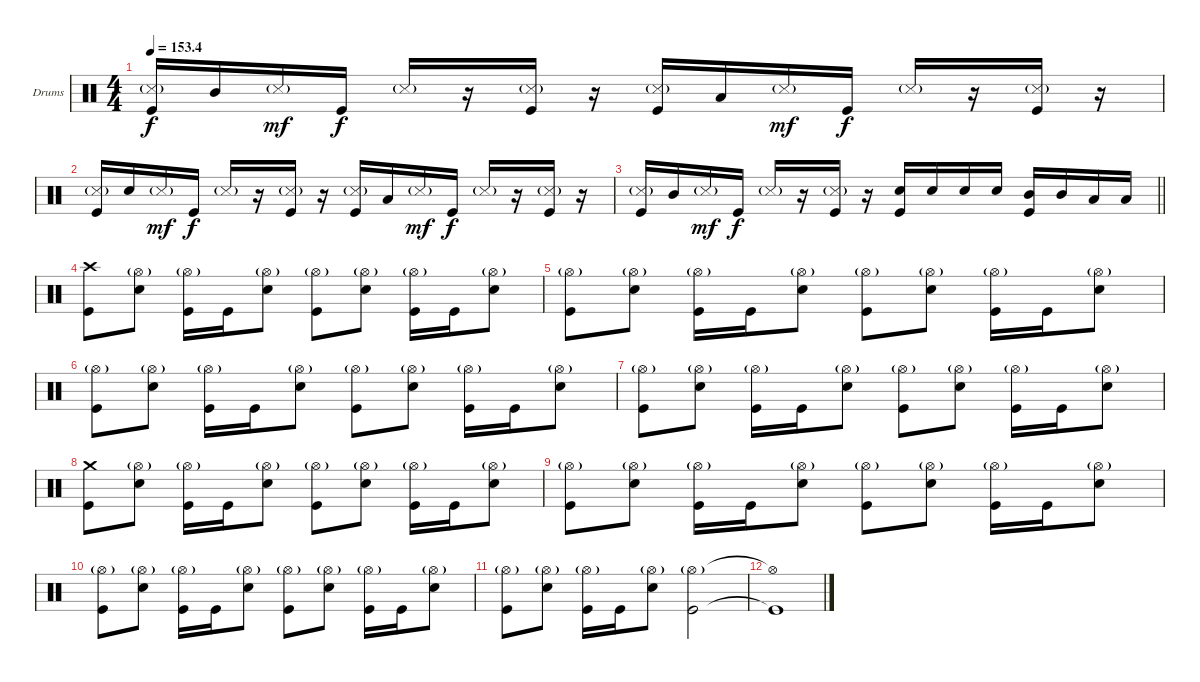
\bracketExtendMode groupsimilarinstruments
\firstSystemTrackNameOrientation horizontal
\otherSystemsTrackNameOrientation horizontal
\track ("Drumkit" "Drums") {instrument percussion}
\staff {score}
\articulation defaults
\ts (4 4)
\tempo
153.4
\accidentals auto
\clef neutral
\ottava regular
\simile none
\ks c
("Snare (side stick) 3"{g} "Kick (hit)").16{dy f} "Mid Tom (hit)".16 "Snare (side stick) 3"{g}.16{dy mf} "Kick (hit)".16{dy f} "Snare (side stick) 3"{g}.16 r.16 ("Snare (side stick) 3"{g} "Kick (hit)").16 r.16 ("Snare (side stick) 3"{g} "Kick (hit)").16 "Low Tom (hit)".16 "Snare (side stick) 3"{g}.16{dy mf} "Kick (hit)".16{dy f} "Snare (side stick) 3"{g}.16 r.16 ("Snare (side stick) 3"{g} "Kick (hit)").16 r.16 |
("Snare (side stick) 3"{g} "Kick (hit)").16 "Snare (hit) 2".16 "Snare (side stick) 3"{g}.16{dy mf} "Kick (hit)".16{dy f} "Snare (side stick) 3"{g}.16 r.16 ("Snare (side stick) 3"{g} "Kick (hit)").16 r.16 ("Snare (side stick) 3"{g} "Kick (hit)").16 "Low Tom (hit)".16 "Snare (side stick) 3"{g}.16{dy mf} "Kick (hit)".16{dy f} "Snare (side stick) 3"{g}.16 r.16 ("Snare (side stick) 3"{g} "Kick (hit)").16 r.16 |
\barLineRight lightlight
("Snare (side stick) 3"{g} "Kick (hit)").16 "Mid Tom (hit)".16 "Snare (side stick) 3"{g}.16{dy mf} "Kick (hit)".16{dy f} "Snare (side stick) 3"{g}.16 r.16 ("Snare (side stick) 3"{g} "Kick (hit)").16 r.16 ("Snare (hit) 2" "Kick (hit)").16 "Snare (hit) 2".16 "Snare (hit) 2".16 "Snare (hit) 2".16 ("Mid Tom (hit)" "Kick (hit)").16 "Mid Tom (hit)".16 "Low Tom (hit)".16 "Low Tom (hit)".16 |
("Crash high (hit)" "Kick (hit)").8 ("Hi-Hat (open)"{g} "Snare (hit) 2").8 ("Hi-Hat (open)"{g} "Kick (hit)").16 "Kick (hit)".16 ("Hi-Hat (open)"{g} "Snare (hit) 2").8 ("Hi-Hat (open)"{g} "Kick (hit)").8 ("Hi-Hat (open)"{g} "Snare (hit) 2").8 ("Hi-Hat (open)"{g} "Kick (hit)").16 "Kick (hit)".16 ("Hi-Hat (open)"{g} "Snare (hit) 2").8 |
("Hi-Hat (open)"{g} "Kick (hit)").8 ("Hi-Hat (open)"{g} "Snare (hit) 2").8 ("Hi-Hat (open)"{g} "Kick (hit)").16 "Kick (hit)".16 ("Hi-Hat (open)"{g} "Snare (hit) 2").8 ("Hi-Hat (open)"{g} "Kick (hit)").8 ("Hi-Hat (open)"{g} "Snare (hit) 2").8 ("Hi-Hat (open)"{g} "Kick (hit)").16 "Kick (hit)".16 ("Hi-Hat (open)"{g} "Snare (hit) 2").8 |
("Hi-Hat (open)"{g} "Kick (hit)").8 ("Hi-Hat (open)"{g} "Snare (hit) 2").8 ("Hi-Hat (open)"{g} "Kick (hit)").16 "Kick (hit)".16 ("Hi-Hat (open)"{g} "Snare (hit) 2").8 ("Hi-Hat (open)"{g} "Kick (hit)").8 ("Hi-Hat (open)"{g} "Snare (hit) 2").8 ("Hi-Hat (open)"{g} "Kick (hit)").16 "Kick (hit)".16 ("Hi-Hat (open)"{g} "Snare (hit) 2").8 |
("Hi-Hat (open)"{g} "Kick (hit)").8 ("Hi-Hat (open)"{g} "Snare (hit) 2").8 ("Hi-Hat (open)"{g} "Kick (hit)").16 "Kick (hit)".16 ("Hi-Hat (open)"{g} "Snare (hit) 2").8 ("Hi-Hat (open)"{g} "Kick (hit)").8 ("Hi-Hat (open)"{g} "Snare (hit) 2").8 ("Hi-Hat (open)"{g} "Kick (hit)").16 "Kick (hit)".16 ("Hi-Hat (open)"{g} "Snare (hit) 2").8 |
("Crash medium (hit)" "Kick (hit)").8 ("Hi-Hat (open)"{g} "Snare (hit) 2").8 ("Hi-Hat (open)"{g} "Kick (hit)").16 "Kick (hit)".16 ("Hi-Hat (open)"{g} "Snare (hit) 2").8 ("Hi-Hat (open)"{g} "Kick (hit)").8 ("Hi-Hat (open)"{g} "Snare (hit) 2").8 ("Hi-Hat (open)"{g} "Kick (hit)").16 "Kick (hit)".16 ("Hi-Hat (open)"{g} "Snare (hit) 2").8 |
("Hi-Hat (open)"{g} "Kick (hit)").8 ("Hi-Hat (open)"{g} "Snare (hit) 2").8 ("Hi-Hat (open)"{g} "Kick (hit)").16 "Kick (hit)".16 ("Hi-Hat (open)"{g} "Snare (hit) 2").8 ("Hi-Hat (open)"{g} "Kick (hit)").8 ("Hi-Hat (open)"{g} "Snare (hit) 2").8 ("Hi-Hat (open)"{g} "Kick (hit)").16 "Kick (hit)".16 ("Hi-Hat (open)"{g} "Snare (hit) 2").8 |
("Hi-Hat (open)"{g} "Kick (hit)").8 ("Hi-Hat (open)"{g} "Snare (hit) 2").8 ("Hi-Hat (open)"{g} "Kick (hit)").16 "Kick (hit)".16 ("Hi-Hat (open)"{g} "Snare (hit) 2").8 ("Hi-Hat (open)"{g} "Kick (hit)").8 ("Hi-Hat (open)"{g} "Snare (hit) 2").8 ("Hi-Hat (open)"{g} "Kick (hit)").16 "Kick (hit)".16 ("Hi-Hat (open)"{g} "Snare (hit) 2").8 |
("Hi-Hat (open)"{g} "Kick (hit)").8 ("Hi-Hat (open)"{g} "Snare (hit) 2").8 ("Hi-Hat (open)"{g} "Kick (hit)").16 "Kick (hit)".16 ("Hi-Hat (open)"{g} "Snare (hit) 2").8 ("Hi-Hat (open)"{g} "Kick (hit)").2 |
("Hi-Hat (open)"{t} "Kick (hit)"{t}).1
